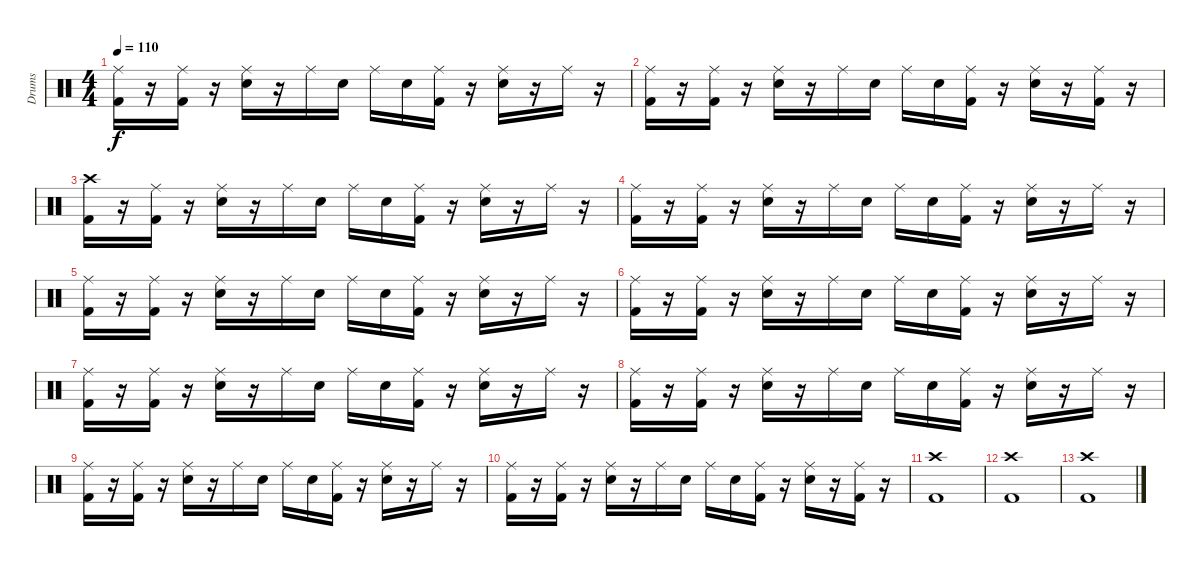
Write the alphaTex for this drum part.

\track ("Drums" "Drums") {instrument percussion}
\staff {score}
\articulation defaults
\ts (4 4)
\tempo 110
\clef neutral
\ks c
("Ride (middle)" "Kick (hit) 2").16{dy f} r.16 ("Ride (middle)" "Kick (hit) 2").16 r.16 ("Ride (middle)" "Electric Snare (hit)").16 r.16 "Ride (middle)".16 "Electric Snare (hit)".16 "Ride (middle)".16 "Electric Snare (hit)".16 ("Ride (middle)" "Kick (hit) 2").16 r.16 ("Ride (middle)" "Electric Snare (hit)").16 r.16 "Ride (middle)".16 r.16 |
("Ride (middle)" "Kick (hit) 2").16 r.16 ("Ride (middle)" "Kick (hit) 2").16 r.16 ("Ride (middle)" "Electric Snare (hit)").16 r.16 "Ride (middle)".16 "Electric Snare (hit)".16 "Ride (middle)".16 "Electric Snare (hit)".16 ("Ride (middle)" "Kick (hit) 2").16 r.16 ("Ride (middle)" "Electric Snare (hit)").16 r.16 ("Ride (middle)" "Kick (hit) 2").16 r.16 |
("Crash high (hit)" "Kick (hit) 2").16 r.16 ("Ride (middle)" "Kick (hit) 2").16 r.16 ("Ride (middle)" "Electric Snare (hit)").16 r.16 "Ride (middle)".16 "Electric Snare (hit)".16 "Ride (middle)".16 "Electric Snare (hit)".16 ("Ride (middle)" "Kick (hit) 2").16 r.16 ("Ride (middle)" "Electric Snare (hit)").16 r.16 "Ride (middle)".16 r.16 |
("Ride (middle)" "Kick (hit) 2").16 r.16 ("Ride (middle)" "Kick (hit) 2").16 r.16 ("Ride (middle)" "Electric Snare (hit)").16 r.16 "Ride (middle)".16 "Electric Snare (hit)".16 "Ride (middle)".16 "Electric Snare (hit)".16 ("Ride (middle)" "Kick (hit) 2").16 r.16 ("Ride (middle)" "Electric Snare (hit)").16 r.16 "Ride (middle)".16 r.16 |
("Ride (middle)" "Kick (hit) 2").16 r.16 ("Ride (middle)" "Kick (hit) 2").16 r.16 ("Ride (middle)" "Electric Snare (hit)").16 r.16 "Ride (middle)".16 "Electric Snare (hit)".16 "Ride (middle)".16 "Electric Snare (hit)".16 ("Ride (middle)" "Kick (hit) 2").16 r.16 ("Ride (middle)" "Electric Snare (hit)").16 r.16 "Ride (middle)".16 r.16 |
("Ride (middle)" "Kick (hit) 2").16 r.16 ("Ride (middle)" "Kick (hit) 2").16 r.16 ("Ride (middle)" "Electric Snare (hit)").16 r.16 "Ride (middle)".16 "Electric Snare (hit)".16 "Ride (middle)".16 "Electric Snare (hit)".16 ("Ride (middle)" "Kick (hit) 2").16 r.16 ("Ride (middle)" "Electric Snare (hit)").16 r.16 "Ride (middle)".16 r.16 |
("Ride (middle)" "Kick (hit) 2").16 r.16 ("Ride (middle)" "Kick (hit) 2").16 r.16 ("Ride (middle)" "Electric Snare (hit)").16 r.16 "Ride (middle)".16 "Electric Snare (hit)".16 "Ride (middle)".16 "Electric Snare (hit)".16 ("Ride (middle)" "Kick (hit) 2").16 r.16 ("Ride (middle)" "Electric Snare (hit)").16 r.16 "Ride (middle)".16 r.16 |
("Ride (middle)" "Kick (hit) 2").16 r.16 ("Ride (middle)" "Kick (hit) 2").16 r.16 ("Ride (middle)" "Electric Snare (hit)").16 r.16 "Ride (middle)".16 "Electric Snare (hit)".16 "Ride (middle)".16 "Electric Snare (hit)".16 ("Ride (middle)" "Kick (hit) 2").16 r.16 ("Ride (middle)" "Electric Snare (hit)").16 r.16 "Ride (middle)".16 r.16 |
("Ride (middle)" "Kick (hit) 2").16 r.16 ("Ride (middle)" "Kick (hit) 2").16 r.16 ("Ride (middle)" "Electric Snare (hit)").16 r.16 "Ride (middle)".16 "Electric Snare (hit)".16 "Ride (middle)".16 "Electric Snare (hit)".16 ("Ride (middle)" "Kick (hit) 2").16 r.16 ("Ride (middle)" "Electric Snare (hit)").16 r.16 "Ride (middle)".16 r.16 |
("Ride (middle)" "Kick (hit) 2").16 r.16 ("Ride (middle)" "Kick (hit) 2").16 r.16 ("Ride (middle)" "Electric Snare (hit)").16 r.16 "Ride (middle)".16 "Electric Snare (hit)".16 "Ride (middle)".16 "Electric Snare (hit)".16 ("Ride (middle)" "Kick (hit) 2").16 r.16 ("Ride (middle)" "Electric Snare (hit)").16 r.16 ("Ride (middle)" "Kick (hit) 2").16 r.16 |
("Crash high (hit)" "Kick (hit) 2").1 |
("Crash high (hit)" "Kick (hit) 2").1 |
("Crash high (hit)" "Kick (hit) 2").1
